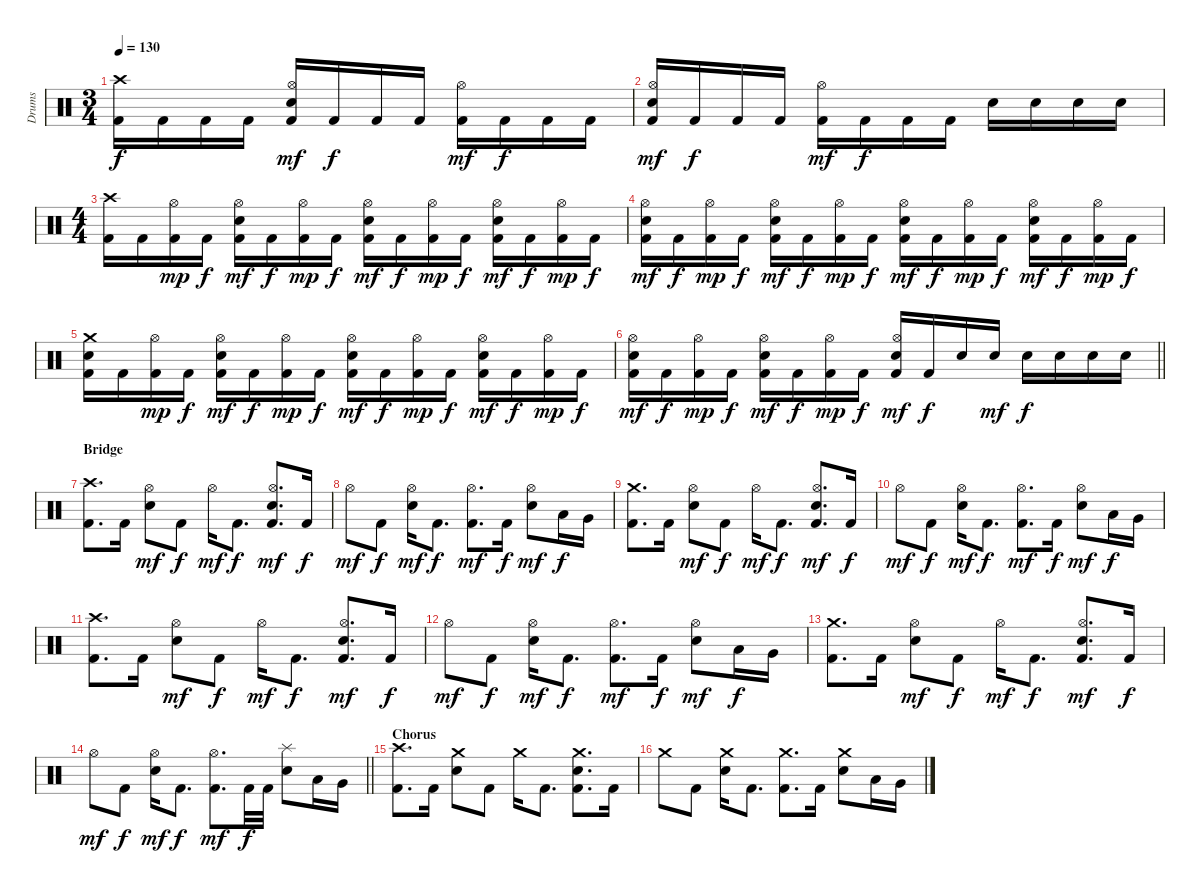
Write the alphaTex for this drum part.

\track ("Drums" "Drums") {instrument percussion}
\staff {score}
\articulation defaults
\ts (3 4)
\tempo 130
\clef neutral
\ks c
("Kick (hit) 2" "Crash high (hit)").16{dy f} "Kick (hit) 2".16 "Kick (hit) 2".16 "Kick (hit) 2".16 ("Kick (hit) 2" "Hi-Hat (open)" "Electric Snare (hit)").16{dy mf} "Kick (hit) 2".16{dy f} "Kick (hit) 2".16 "Kick (hit) 2".16 ("Kick (hit) 2" "Hi-Hat (open)").16{dy mf} "Kick (hit) 2".16{dy f} "Kick (hit) 2".16 "Kick (hit) 2".16 |
("Kick (hit) 2" "Hi-Hat (open)" "Electric Snare (hit)").16{dy mf} "Kick (hit) 2".16{dy f} "Kick (hit) 2".16 "Kick (hit) 2".16 ("Kick (hit) 2" "Hi-Hat (open)").16{dy mf} "Kick (hit) 2".16{dy f} "Kick (hit) 2".16 "Kick (hit) 2".16 "Electric Snare (hit)".16 "Electric Snare (hit)".16 "Electric Snare (hit)".16 "Electric Snare (hit)".16 |
\ts (4 4)
("Kick (hit) 2" "Crash high (hit)").16 "Kick (hit) 2".16 ("Kick (hit) 2" "Hi-Hat (open)").16{dy mp} "Kick (hit) 2".16{dy f} ("Kick (hit) 2" "Hi-Hat (open)" "Electric Snare (hit)").16{dy mf} "Kick (hit) 2".16{dy f} ("Kick (hit) 2" "Hi-Hat (open)").16{dy mp} "Kick (hit) 2".16{dy f} ("Kick (hit) 2" "Hi-Hat (open)" "Electric Snare (hit)").16{dy mf} "Kick (hit) 2".16{dy f} ("Kick (hit) 2" "Hi-Hat (open)").16{dy mp} "Kick (hit) 2".16{dy f} ("Kick (hit) 2" "Hi-Hat (open)" "Electric Snare (hit)").16{dy mf} "Kick (hit) 2".16{dy f} ("Kick (hit) 2" "Hi-Hat (open)").16{dy mp} "Kick (hit) 2".16{dy f} |
("Kick (hit) 2" "Hi-Hat (open)" "Electric Snare (hit)").16{dy mf} "Kick (hit) 2".16{dy f} ("Kick (hit) 2" "Hi-Hat (open)").16{dy mp} "Kick (hit) 2".16{dy f} ("Kick (hit) 2" "Hi-Hat (open)" "Electric Snare (hit)").16{dy mf} "Kick (hit) 2".16{dy f} ("Kick (hit) 2" "Hi-Hat (open)").16{dy mp} "Kick (hit) 2".16{dy f} ("Kick (hit) 2" "Hi-Hat (open)" "Electric Snare (hit)").16{dy mf} "Kick (hit) 2".16{dy f} ("Kick (hit) 2" "Hi-Hat (open)").16{dy mp} "Kick (hit) 2".16{dy f} ("Kick (hit) 2" "Hi-Hat (open)" "Electric Snare (hit)").16{dy mf} "Kick (hit) 2".16{dy f} ("Kick (hit) 2" "Hi-Hat (open)").16{dy mp} "Kick (hit) 2".16{dy f} |
("Kick (hit) 2" "Crash medium (hit)" "Electric Snare (hit)").16 "Kick (hit) 2".16 ("Kick (hit) 2" "Hi-Hat (open)").16{dy mp} "Kick (hit) 2".16{dy f} ("Kick (hit) 2" "Hi-Hat (open)" "Electric Snare (hit)").16{dy mf} "Kick (hit) 2".16{dy f} ("Kick (hit) 2" "Hi-Hat (open)").16{dy mp} "Kick (hit) 2".16{dy f} ("Kick (hit) 2" "Hi-Hat (open)" "Electric Snare (hit)").16{dy mf} "Kick (hit) 2".16{dy f} ("Kick (hit) 2" "Hi-Hat (open)").16{dy mp} "Kick (hit) 2".16{dy f} ("Kick (hit) 2" "Hi-Hat (open)" "Electric Snare (hit)").16{dy mf} "Kick (hit) 2".16{dy f} ("Kick (hit) 2" "Hi-Hat (open)").16{dy mp} "Kick (hit) 2".16{dy f} |
\barLineRight lightlight
("Kick (hit) 2" "Hi-Hat (open)" "Electric Snare (hit)").16{dy mf} "Kick (hit) 2".16{dy f} ("Kick (hit) 2" "Hi-Hat (open)").16{dy mp} "Kick (hit) 2".16{dy f} ("Kick (hit) 2" "Hi-Hat (open)" "Electric Snare (hit)").16{dy mf} "Kick (hit) 2".16{dy f} ("Kick (hit) 2" "Hi-Hat (open)").16{dy mp} "Kick (hit) 2".16{dy f} ("Kick (hit) 2" "Hi-Hat (open)" "Electric Snare (hit)").16{dy mf} "Kick (hit) 2".16{dy f} "Electric Snare (hit)".16 "Electric Snare (hit)".16{dy mf} "Electric Snare (hit)".16{dy f} "Electric Snare (hit)".16 "Electric Snare (hit)".16 "Electric Snare (hit)".16 |
\section ("" "Bridge")
("Kick (hit) 2" "Crash high (hit)").8{d} "Kick (hit) 2".16 ("Hi-Hat (open)" "Electric Snare (hit)").8{dy mf} "Kick (hit) 2".8{dy f} "Hi-Hat (open)".16{dy mf} "Kick (hit) 2".8{d dy f} ("Kick (hit) 2" "Hi-Hat (open)" "Electric Snare (hit)").8{d dy mf} "Kick (hit) 2".16{dy f} |
"Hi-Hat (open)".8{dy mf} "Kick (hit) 2".8{dy f} ("Hi-Hat (open)" "Electric Snare (hit)").16{dy mf} "Kick (hit) 2".8{d dy f} ("Kick (hit) 2" "Hi-Hat (open)").8{d dy mf} "Kick (hit) 2".16{dy f} ("Hi-Hat (open)" "Electric Snare (hit)").8{dy mf} "Low Tom (hit)".16{dy f} "Very Low Tom (hit)".16 |
("Kick (hit) 2" "Crash medium (hit)").8{d} "Kick (hit) 2".16 ("Hi-Hat (open)" "Electric Snare (hit)").8{dy mf} "Kick (hit) 2".8{dy f} "Hi-Hat (open)".16{dy mf} "Kick (hit) 2".8{d dy f} ("Kick (hit) 2" "Hi-Hat (open)" "Electric Snare (hit)").8{d dy mf} "Kick (hit) 2".16{dy f} |
"Hi-Hat (open)".8{dy mf} "Kick (hit) 2".8{dy f} ("Hi-Hat (open)" "Electric Snare (hit)").16{dy mf} "Kick (hit) 2".8{d dy f} ("Kick (hit) 2" "Hi-Hat (open)").8{d dy mf} "Kick (hit) 2".16{dy f} ("Hi-Hat (open)" "Electric Snare (hit)").8{dy mf} "Low Tom (hit)".16{dy f} "Very Low Tom (hit)".16 |
("Kick (hit) 2" "Crash high (hit)").8{d} "Kick (hit) 2".16 ("Hi-Hat (open)" "Electric Snare (hit)").8{dy mf} "Kick (hit) 2".8{dy f} "Hi-Hat (open)".16{dy mf} "Kick (hit) 2".8{d dy f} ("Kick (hit) 2" "Hi-Hat (open)" "Electric Snare (hit)").8{d dy mf} "Kick (hit) 2".16{dy f} |
"Hi-Hat (open)".8{dy mf} "Kick (hit) 2".8{dy f} ("Hi-Hat (open)" "Electric Snare (hit)").16{dy mf} "Kick (hit) 2".8{d dy f} ("Kick (hit) 2" "Hi-Hat (open)").8{d dy mf} "Kick (hit) 2".16{dy f} ("Hi-Hat (open)" "Electric Snare (hit)").8{dy mf} "Low Tom (hit)".16{dy f} "Very Low Tom (hit)".16 |
("Kick (hit) 2" "Crash medium (hit)").8{d} "Kick (hit) 2".16 ("Hi-Hat (open)" "Electric Snare (hit)").8{dy mf} "Kick (hit) 2".8{dy f} "Hi-Hat (open)".16{dy mf} "Kick (hit) 2".8{d dy f} ("Kick (hit) 2" "Hi-Hat (open)" "Electric Snare (hit)").8{d dy mf} "Kick (hit) 2".16{dy f} |
\barLineRight lightlight "Hi-Hat (open)".8{dy mf} "Kick (hit) 2".8{dy f}
("Hi-Hat (open)" "Electric Snare (hit)").16{dy mf} "Kick (hit) 2".8{d dy f} ("Kick (hit) 2" "Hi-Hat (open)").8{d dy mf} "Kick (hit) 2".32{dy f} "Kick (hit) 2".32 ("Splash (hit)" "Electric Snare (hit)").8 "Low Tom (hit)".16 "Very Low Tom (hit)".16 |
\section ("" "Chorus")
("Kick (hit) 2" "Crash high (hit)").8{d} "Kick (hit) 2".16 ("Crash medium (hit)" "Electric Snare (hit)").8 "Kick (hit) 2".8 "Crash medium (hit)".16 "Kick (hit) 2".8{d} ("Kick (hit) 2" "Crash medium (hit)" "Electric Snare (hit)").8{d} "Kick (hit) 2".16 |
"Crash medium (hit)".8 "Kick (hit) 2".8 ("Crash medium (hit)" "Electric Snare (hit)").16 "Kick (hit) 2".8{d} ("Kick (hit) 2" "Crash medium (hit)").8{d} "Kick (hit) 2".16 ("Crash medium (hit)" "Electric Snare (hit)").8 "Low Tom (hit)".16 "Very Low Tom (hit)".16
